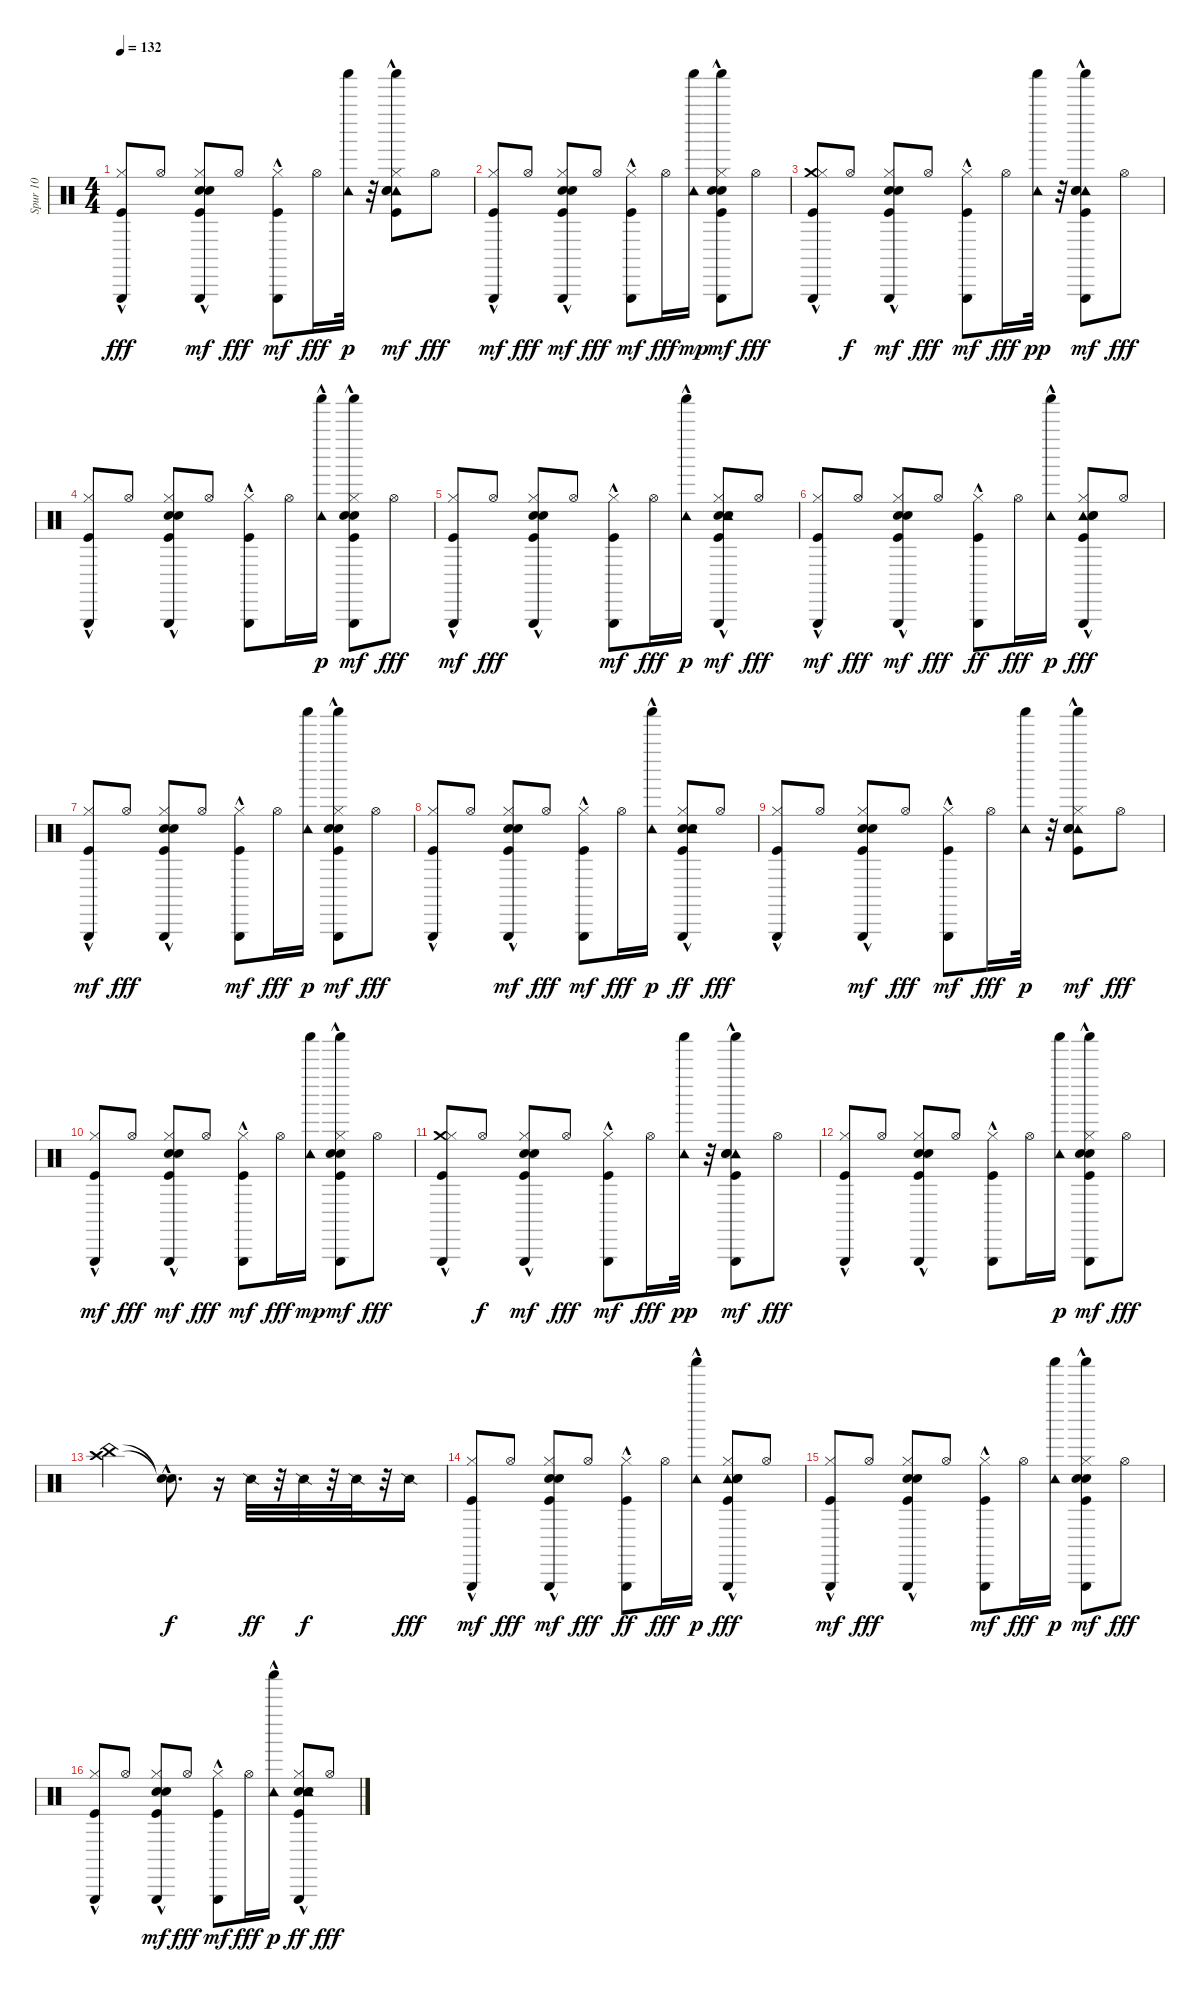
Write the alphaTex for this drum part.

\track ("Spur 10" "Spur 10") {instrument percussion}
\staff {score}
\articulation defaults
\ts (4 4)
\tempo 132
\clef neutral
\ks c
("Triangle (hit)"{hac} "Kick (hit)"{hac} "Hi-Hat (closed)").8{dy fff} "Hi-Hat (open)".8 ("Kick (hit)"{hac} "Hand Clap (hit)"{hac} "Snare (hit) 2"{hac} "Hi-Hat (closed)" "Triangle (hit)"{hac}).8{dy mf} "Hi-Hat (open)".8{dy fff} ("Hi-Hat (closed)" "Kick (hit)"{hac} "Triangle (hit)"{hac}).8{dy mf} "Hi-Hat (open)".16{dy fff} ("Tambourine (hit)" "Shaker (hit)").32{dy p} r.32 ("Shaker (hit)" "Tambourine (hit)"{hac} "Hi-Hat (closed)" "Kick (hit)"{hac} "Hand Clap (hit)"{hac} "Snare (hit) 2"{hac}).8{dy mf} "Hi-Hat (open)".8{dy fff} |
("Hi-Hat (closed)" "Kick (hit)"{hac} "Triangle (hit)"{hac}).8{dy mf} "Hi-Hat (open)".8{dy fff} ("Hi-Hat (closed)" "Kick (hit)"{hac} "Snare (hit) 2"{hac} "Hand Clap (hit)"{hac} "Triangle (hit)"{hac}).8{dy mf} "Hi-Hat (open)".8{dy fff} ("Kick (hit)"{hac} "Hi-Hat (closed)" "Triangle (hit)"{hac}).8{dy mf} "Hi-Hat (open)".16{dy fff} ("Shaker (hit)" "Tambourine (hit)").16{dy mp} ("Shaker (hit)"{hac} "Triangle (hit)"{hac} "Hi-Hat (closed)" "Kick (hit)" "Hand Clap (hit)"{hac} "Snare (hit) 2"{hac}).8{dy mf} "Hi-Hat (open)".8{dy fff} |
("Crash medium (hit)" "Triangle (hit)"{hac} "Hi-Hat (closed)" "Kick (hit)").8 "Hi-Hat (open)".8{dy f} ("Snare (hit) 2"{hac} "Hand Clap (hit)"{hac} "Kick (hit)"{hac} "Hi-Hat (closed)" "Triangle (hit)").8{dy mf} "Hi-Hat (open)".8{dy fff} ("Kick (hit)"{hac} "Hi-Hat (closed)"{hac} "Triangle (hit)"{hac}).8{dy mf} "Hi-Hat (open)".16{dy fff} ("Tambourine (hit)" "Shaker (hit)").32{dy pp} r.32 ("Shaker (hit)" "Tambourine (hit)"{hac} "Triangle (hit)" "Kick (hit)"{hac} "Hand Clap (hit)"{hac} "Snare (hit) 2"{hac}).8{dy mf} "Hi-Hat (open)".8{dy fff} |
("Triangle (hit)"{hac} "Hi-Hat (closed)" "Kick (hit)"{hac}).8 "Hi-Hat (open)".8 ("Triangle (hit)" "Hi-Hat (closed)" "Hand Clap (hit)"{hac} "Snare (hit) 2"{hac} "Kick (hit)"{hac}).8 "Hi-Hat (open)".8 ("Triangle (hit)"{hac} "Hi-Hat (closed)" "Kick (hit)"{hac}).8 "Hi-Hat (open)".16 ("Tambourine (hit)"{hac} "Shaker (hit)").16{dy p} ("Shaker (hit)" "Triangle (hit)"{hac} "Hi-Hat (closed)" "Kick (hit)"{hac} "Hand Clap (hit)"{hac} "Snare (hit) 2"{hac}).8{dy mf} "Hi-Hat (open)".8{dy fff} |
("Kick (hit)"{hac} "Hi-Hat (closed)" "Triangle (hit)"{hac}).8{dy mf} "Hi-Hat (open)".8{dy fff} ("Triangle (hit)"{hac} "Kick (hit)"{hac} "Hand Clap (hit)"{hac} "Snare (hit) 2"{hac} "Hi-Hat (closed)").8 "Hi-Hat (open)".8 ("Kick (hit)"{hac} "Hi-Hat (closed)" "Triangle (hit)"{hac}).8{dy mf} "Hi-Hat (open)".16{dy fff} ("Tambourine (hit)" "Shaker (hit)"{hac}).16{dy p} ("Kick (hit)"{hac} "Snare (hit) 2"{hac} "Hand Clap (hit)"{hac} "Hi-Hat (closed)" "Triangle (hit)"{hac} "Tambourine (hit)"{hac}).8{dy mf} "Hi-Hat (open)".8{dy fff} |
("Kick (hit)"{hac} "Hi-Hat (closed)" "Triangle (hit)"{hac}).8{dy mf} "Hi-Hat (open)".8{dy fff} ("Triangle (hit)"{hac} "Hi-Hat (closed)" "Kick (hit)"{hac} "Hand Clap (hit)"{hac} "Snare (hit) 2"{hac}).8{dy mf} "Hi-Hat (open)".8{dy fff} ("Triangle (hit)"{hac} "Kick (hit)"{hac} "Hi-Hat (closed)").8{dy ff} "Hi-Hat (open)".16{dy fff} ("Tambourine (hit)" "Shaker (hit)"{hac}).16{dy p} ("Tambourine (hit)"{hac} "Triangle (hit)"{hac} "Kick (hit)"{hac} "Snare (hit) 2"{hac} "Hand Clap (hit)"{hac} "Hi-Hat (closed)").8{dy fff} "Hi-Hat (open)".8 |
("Kick (hit)"{hac} "Hi-Hat (closed)" "Triangle (hit)"{hac}).8{dy mf} "Hi-Hat (open)".8{dy fff} ("Triangle (hit)"{hac} "Hi-Hat (closed)" "Hand Clap (hit)"{hac} "Snare (hit) 2"{hac} "Kick (hit)"{hac}).8 "Hi-Hat (open)".8 ("Hi-Hat (closed)" "Kick (hit)"{hac} "Triangle (hit)"{hac}).8{dy mf} "Hi-Hat (open)".16{dy fff} ("Shaker (hit)" "Tambourine (hit)").16{dy p} ("Shaker (hit)" "Triangle (hit)"{hac} "Hi-Hat (closed)" "Kick (hit)"{hac} "Hand Clap (hit)"{hac} "Snare (hit) 2"{hac}).8{dy mf} "Hi-Hat (open)".8{dy fff} |
("Triangle (hit)"{hac} "Hi-Hat (closed)" "Kick (hit)"{hac}).8 "Hi-Hat (open)".8 ("Hi-Hat (closed)" "Kick (hit)"{hac} "Snare (hit) 2"{hac} "Hand Clap (hit)"{hac} "Triangle (hit)"{hac}).8{dy mf} "Hi-Hat (open)".8{dy fff} ("Kick (hit)"{hac} "Hi-Hat (closed)" "Triangle (hit)"{hac}).8{dy mf} "Hi-Hat (open)".16{dy fff} ("Tambourine (hit)" "Shaker (hit)"{hac}).16{dy p} ("Triangle (hit)"{hac} "Hi-Hat (closed)" "Hand Clap (hit)"{hac} "Snare (hit) 2"{hac} "Kick (hit)"{hac} "Tambourine (hit)").8{dy ff} "Hi-Hat (open)".8{dy fff} |
("Triangle (hit)"{hac} "Kick (hit)"{hac} "Hi-Hat (closed)").8 "Hi-Hat (open)".8 ("Kick (hit)"{hac} "Hand Clap (hit)"{hac} "Snare (hit) 2"{hac} "Hi-Hat (closed)" "Triangle (hit)"{hac}).8{dy mf} "Hi-Hat (open)".8{dy fff} ("Hi-Hat (closed)" "Kick (hit)"{hac} "Triangle (hit)"{hac}).8{dy mf} "Hi-Hat (open)".16{dy fff} ("Tambourine (hit)" "Shaker (hit)").32{dy p} r.32 ("Shaker (hit)" "Tambourine (hit)"{hac} "Hi-Hat (closed)" "Kick (hit)"{hac} "Hand Clap (hit)"{hac} "Snare (hit) 2"{hac}).8{dy mf} "Hi-Hat (open)".8{dy fff} |
("Hi-Hat (closed)" "Kick (hit)"{hac} "Triangle (hit)"{hac}).8{dy mf} "Hi-Hat (open)".8{dy fff} ("Hi-Hat (closed)" "Kick (hit)"{hac} "Snare (hit) 2"{hac} "Hand Clap (hit)"{hac} "Triangle (hit)"{hac}).8{dy mf} "Hi-Hat (open)".8{dy fff} ("Kick (hit)"{hac} "Hi-Hat (closed)" "Triangle (hit)"{hac}).8{dy mf} "Hi-Hat (open)".16{dy fff} ("Shaker (hit)" "Tambourine (hit)").16{dy mp} ("Shaker (hit)"{hac} "Triangle (hit)"{hac} "Hi-Hat (closed)" "Kick (hit)" "Hand Clap (hit)"{hac} "Snare (hit) 2"{hac}).8{dy mf} "Hi-Hat (open)".8{dy fff} |
("Crash medium (hit)" "Triangle (hit)"{hac} "Hi-Hat (closed)" "Kick (hit)").8 "Hi-Hat (open)".8{dy f} ("Snare (hit) 2"{hac} "Hand Clap (hit)"{hac} "Kick (hit)"{hac} "Hi-Hat (closed)" "Triangle (hit)").8{dy mf} "Hi-Hat (open)".8{dy fff} ("Kick (hit)"{hac} "Hi-Hat (closed)"{hac} "Triangle (hit)"{hac}).8{dy mf} "Hi-Hat (open)".16{dy fff} ("Tambourine (hit)" "Shaker (hit)").32{dy pp} r.32 ("Shaker (hit)" "Tambourine (hit)"{hac} "Triangle (hit)" "Kick (hit)"{hac} "Hand Clap (hit)"{hac} "Snare (hit) 2"{hac}).8{dy mf} "Hi-Hat (open)".8{dy fff} |
("Triangle (hit)"{hac} "Hi-Hat (closed)" "Kick (hit)"{hac}).8 "Hi-Hat (open)".8 ("Triangle (hit)" "Hi-Hat (closed)" "Hand Clap (hit)"{hac} "Snare (hit) 2"{hac} "Kick (hit)"{hac}).8 "Hi-Hat (open)".8 ("Triangle (hit)"{hac} "Hi-Hat (closed)" "Kick (hit)"{hac}).8 "Hi-Hat (open)".16 ("Tambourine (hit)" "Shaker (hit)").16{dy p} ("Shaker (hit)" "Triangle (hit)"{hac} "Hi-Hat (closed)" "Kick (hit)"{hac} "Hand Clap (hit)" "Snare (hit) 2").8{dy mf} "Hi-Hat (open)".8{dy fff} |
("China (hit)" "Crash high (hit)").2 ("Snare (hit)"{hac t} "Snare (hit)"{hac t}).8{d dy f} r.16 "Snare (side stick) 2".32{dy ff} r.32 "Snare (side stick) 2".32{dy f} r.32 "Snare (side stick) 2".32 r.32 "Snare (side stick) 2".16{dy fff} |
("Kick (hit)"{hac} "Hi-Hat (closed)" "Triangle (hit)"{hac}).8{dy mf} "Hi-Hat (open)".8{dy fff} ("Triangle (hit)"{hac} "Hi-Hat (closed)" "Kick (hit)"{hac} "Hand Clap (hit)"{hac} "Snare (hit) 2"{hac}).8{dy mf} "Hi-Hat (open)".8{dy fff} ("Triangle (hit)"{hac} "Kick (hit)"{hac} "Hi-Hat (closed)").8{dy ff} "Hi-Hat (open)".16{dy fff} ("Tambourine (hit)" "Shaker (hit)"{hac}).16{dy p} ("Tambourine (hit)"{hac} "Triangle (hit)"{hac} "Kick (hit)"{hac} "Snare (hit) 2"{hac} "Hand Clap (hit)"{hac} "Hi-Hat (closed)").8{dy fff} "Hi-Hat (open)".8 |
("Kick (hit)"{hac} "Hi-Hat (closed)" "Triangle (hit)"{hac}).8{dy mf} "Hi-Hat (open)".8{dy fff} ("Triangle (hit)"{hac} "Hi-Hat (closed)" "Hand Clap (hit)"{hac} "Snare (hit) 2"{hac} "Kick (hit)"{hac}).8 "Hi-Hat (open)".8 ("Hi-Hat (closed)" "Kick (hit)"{hac} "Triangle (hit)"{hac}).8{dy mf} "Hi-Hat (open)".16{dy fff} ("Shaker (hit)" "Tambourine (hit)").16{dy p} ("Shaker (hit)" "Triangle (hit)"{hac} "Hi-Hat (closed)" "Kick (hit)"{hac} "Hand Clap (hit)"{hac} "Snare (hit) 2"{hac}).8{dy mf} "Hi-Hat (open)".8{dy fff} |
("Triangle (hit)"{hac} "Hi-Hat (closed)" "Kick (hit)"{hac}).8 "Hi-Hat (open)".8 ("Hi-Hat (closed)" "Kick (hit)"{hac} "Snare (hit) 2"{hac} "Hand Clap (hit)"{hac} "Triangle (hit)"{hac}).8{dy mf} "Hi-Hat (open)".8{dy fff} ("Kick (hit)"{hac} "Hi-Hat (closed)" "Triangle (hit)"{hac}).8{dy mf} "Hi-Hat (open)".16{dy fff} ("Tambourine (hit)" "Shaker (hit)"{hac}).16{dy p} ("Triangle (hit)"{hac} "Hi-Hat (closed)" "Hand Clap (hit)"{hac} "Snare (hit) 2"{hac} "Kick (hit)"{hac} "Tambourine (hit)").8{dy ff} "Hi-Hat (open)".8{dy fff}
